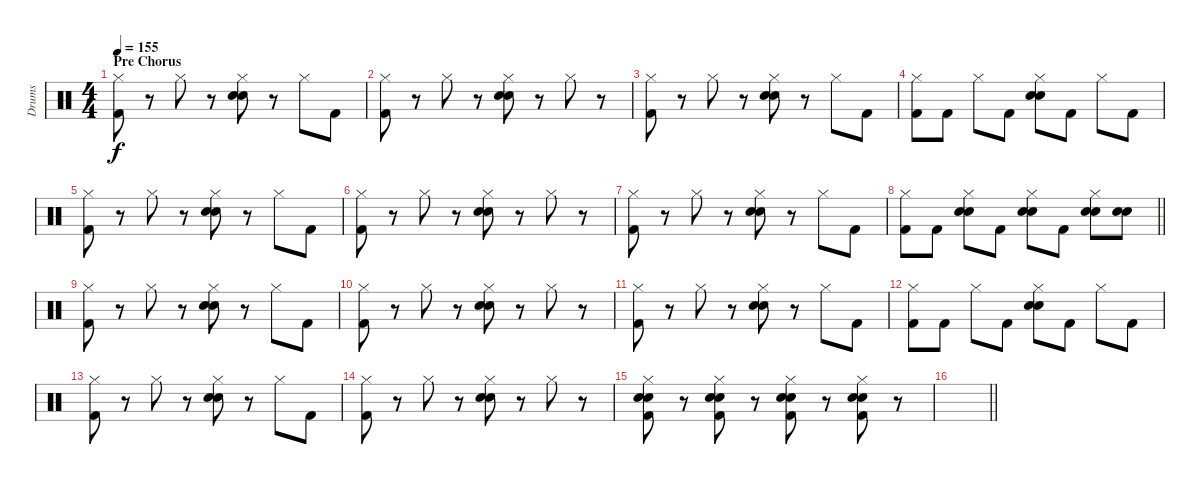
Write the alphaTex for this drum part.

\track ("Drums" "Drums") {instrument percussion}
\staff {score}
\articulation defaults
\ts (4 4)
\section ("" "Pre Chorus")
\tempo 155
\clef neutral
\ks c
("Hi-Hat (closed)" "Kick (hit) 2").8{dy f} r.8 "Hi-Hat (closed)".8 r.8 ("Hi-Hat (closed)" "Electric Snare (hit)" "Hand Clap (hit)").8 r.8 "Hi-Hat (closed)".8 "Kick (hit) 2".8 |
("Hi-Hat (closed)" "Kick (hit) 2").8 r.8 "Hi-Hat (closed)".8 r.8 ("Hi-Hat (closed)" "Electric Snare (hit)" "Hand Clap (hit)").8 r.8 "Hi-Hat (closed)".8 r.8 |
("Hi-Hat (closed)" "Kick (hit) 2").8 r.8 "Hi-Hat (closed)".8 r.8 ("Hi-Hat (closed)" "Electric Snare (hit)" "Hand Clap (hit)").8 r.8 "Hi-Hat (closed)".8 "Kick (hit) 2".8 |
("Hi-Hat (closed)" "Kick (hit) 2").8 "Kick (hit) 2".8 "Hi-Hat (closed)".8 "Kick (hit) 2".8 ("Hi-Hat (closed)" "Electric Snare (hit)" "Hand Clap (hit)").8 "Kick (hit) 2".8 "Hi-Hat (closed)".8 "Kick (hit) 2".8 |
("Hi-Hat (closed)" "Kick (hit) 2").8 r.8 "Hi-Hat (closed)".8 r.8 ("Hi-Hat (closed)" "Electric Snare (hit)" "Hand Clap (hit)").8 r.8 "Hi-Hat (closed)".8 "Kick (hit) 2".8 |
("Hi-Hat (closed)" "Kick (hit) 2").8 r.8 "Hi-Hat (closed)".8 r.8 ("Hi-Hat (closed)" "Electric Snare (hit)" "Hand Clap (hit)").8 r.8 "Hi-Hat (closed)".8 r.8 |
("Hi-Hat (closed)" "Kick (hit) 2").8 r.8 "Hi-Hat (closed)".8 r.8 ("Hi-Hat (closed)" "Electric Snare (hit)" "Hand Clap (hit)").8 r.8 "Hi-Hat (closed)".8 "Kick (hit) 2".8 |
\barLineRight lightlight
("Hi-Hat (closed)" "Kick (hit) 2").8 "Kick (hit) 2".8 ("Hi-Hat (closed)" "Electric Snare (hit)" "Hand Clap (hit)").8 "Kick (hit) 2".8 ("Hi-Hat (closed)" "Electric Snare (hit)" "Hand Clap (hit)").8 "Kick (hit) 2".8 ("Hi-Hat (closed)" "Electric Snare (hit)" "Hand Clap (hit)").8 ("Electric Snare (hit)" "Hand Clap (hit)").8 |
\section ("" "")
("Hi-Hat (closed)" "Kick (hit) 2").8 r.8 "Hi-Hat (closed)".8 r.8 ("Hi-Hat (closed)" "Electric Snare (hit)" "Hand Clap (hit)").8 r.8 "Hi-Hat (closed)".8 "Kick (hit) 2".8 |
("Hi-Hat (closed)" "Kick (hit) 2").8 r.8 "Hi-Hat (closed)".8 r.8 ("Hi-Hat (closed)" "Electric Snare (hit)" "Hand Clap (hit)").8 r.8 "Hi-Hat (closed)".8 r.8 |
("Hi-Hat (closed)" "Kick (hit) 2").8 r.8 "Hi-Hat (closed)".8 r.8 ("Hi-Hat (closed)" "Electric Snare (hit)" "Hand Clap (hit)").8 r.8 "Hi-Hat (closed)".8 "Kick (hit) 2".8 |
("Hi-Hat (closed)" "Kick (hit) 2").8 "Kick (hit) 2".8 "Hi-Hat (closed)".8 "Kick (hit) 2".8 ("Hi-Hat (closed)" "Electric Snare (hit)" "Hand Clap (hit)").8 "Kick (hit) 2".8 "Hi-Hat (closed)".8 "Kick (hit) 2".8 |
("Hi-Hat (closed)" "Kick (hit) 2").8 r.8 "Hi-Hat (closed)".8 r.8 ("Hi-Hat (closed)" "Electric Snare (hit)" "Hand Clap (hit)").8 r.8 "Hi-Hat (closed)".8 "Kick (hit) 2".8 |
("Hi-Hat (closed)" "Kick (hit) 2").8 r.8 "Hi-Hat (closed)".8 r.8 ("Hi-Hat (closed)" "Electric Snare (hit)" "Hand Clap (hit)").8 r.8 "Hi-Hat (closed)".8 r.8 |
("Hi-Hat (closed)" "Electric Snare (hit)" "Hand Clap (hit)" "Kick (hit) 2").8 r.8 ("Hi-Hat (closed)" "Electric Snare (hit)" "Hand Clap (hit)" "Kick (hit) 2").8 r.8 ("Hi-Hat (closed)" "Electric Snare (hit)" "Hand Clap (hit)" "Kick (hit) 2").8 r.8 ("Hi-Hat (closed)" "Electric Snare (hit)" "Hand Clap (hit)" "Kick (hit) 2").8 r.8 |
\barLineRight lightlight
